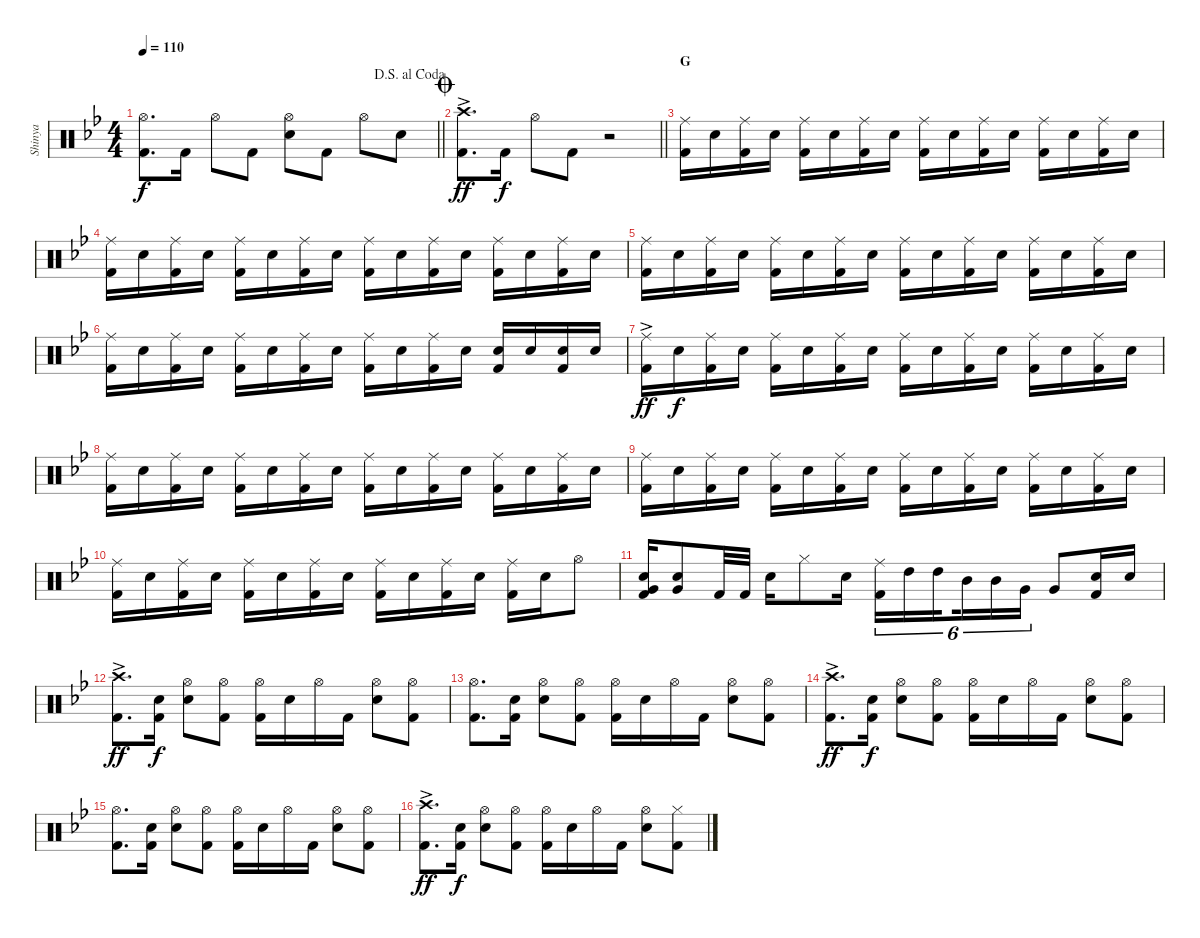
\track ("Shinya" "Shinya") {instrument percussion}
\staff {score}
\articulation defaults
\ts (4 4)
\jump dalsegnoalcoda
\tempo 110
\clef neutral
\barLineRight lightlight
\ks bb
("Hi-Hat (open)" "Kick (hit) 2").8{d dy f} "Kick (hit) 2".16 "Hi-Hat (open)".8 "Kick (hit) 2".8 ("Hi-Hat (open)" "Snare (hit) 2").8 "Kick (hit) 2".8 "Hi-Hat (open)".8 "Snare (hit) 2".8 |
\jump coda
\barLineRight lightlight
("Crash high (hit)"{ac} "Kick (hit) 2").8{d dy ff} "Kick (hit) 2".16{dy f} "Hi-Hat (open)".8 "Kick (hit) 2".8 r.2 |
\section ("" "G")
("Ride (middle)" "Kick (hit) 2").16 "Snare (hit) 2".16 ("Ride (middle)" "Kick (hit) 2").16 "Snare (hit) 2".16 ("Ride (middle)" "Kick (hit) 2").16 "Snare (hit) 2".16 ("Ride (middle)" "Kick (hit) 2").16 "Snare (hit) 2".16 ("Ride (middle)" "Kick (hit) 2").16 "Snare (hit) 2".16 ("Ride (middle)" "Kick (hit) 2").16 "Snare (hit) 2".16 ("Ride (middle)" "Kick (hit) 2").16 "Snare (hit) 2".16 ("Ride (middle)" "Kick (hit) 2").16 "Snare (hit) 2".16 |
("Ride (middle)" "Kick (hit) 2").16 "Snare (hit) 2".16 ("Ride (middle)" "Kick (hit) 2").16 "Snare (hit) 2".16 ("Ride (middle)" "Kick (hit) 2").16 "Snare (hit) 2".16 ("Ride (middle)" "Kick (hit) 2").16 "Snare (hit) 2".16 ("Ride (middle)" "Kick (hit) 2").16 "Snare (hit) 2".16 ("Ride (middle)" "Kick (hit) 2").16 "Snare (hit) 2".16 ("Ride (middle)" "Kick (hit) 2").16 "Snare (hit) 2".16 ("Ride (middle)" "Kick (hit) 2").16 "Snare (hit) 2".16 |
("Ride (middle)" "Kick (hit) 2").16 "Snare (hit) 2".16 ("Ride (middle)" "Kick (hit) 2").16 "Snare (hit) 2".16 ("Ride (middle)" "Kick (hit) 2").16 "Snare (hit) 2".16 ("Ride (middle)" "Kick (hit) 2").16 "Snare (hit) 2".16 ("Ride (middle)" "Kick (hit) 2").16 "Snare (hit) 2".16 ("Ride (middle)" "Kick (hit) 2").16 "Snare (hit) 2".16 ("Ride (middle)" "Kick (hit) 2").16 "Snare (hit) 2".16 ("Ride (middle)" "Kick (hit) 2").16 "Snare (hit) 2".16 |
("Ride (middle)" "Kick (hit) 2").16 "Snare (hit) 2".16 ("Ride (middle)" "Kick (hit) 2").16 "Snare (hit) 2".16 ("Ride (middle)" "Kick (hit) 2").16 "Snare (hit) 2".16 ("Ride (middle)" "Kick (hit) 2").16 "Snare (hit) 2".16 ("Ride (middle)" "Kick (hit) 2").16 "Snare (hit) 2".16 ("Ride (middle)" "Kick (hit) 2").16 "Snare (hit) 2".16 ("Snare (hit) 2" "Kick (hit) 2").16 "Snare (hit) 2".16 ("Snare (hit) 2" "Kick (hit) 2").16 "Snare (hit) 2".16 |
("Ride (middle)" "Kick (hit) 2"{ac}).16{dy ff} "Snare (hit) 2".16{dy f} ("Ride (middle)" "Kick (hit) 2").16 "Snare (hit) 2".16 ("Ride (middle)" "Kick (hit) 2").16 "Snare (hit) 2".16 ("Ride (middle)" "Kick (hit) 2").16 "Snare (hit) 2".16 ("Ride (middle)" "Kick (hit) 2").16 "Snare (hit) 2".16 ("Ride (middle)" "Kick (hit) 2").16 "Snare (hit) 2".16 ("Ride (middle)" "Kick (hit) 2").16 "Snare (hit) 2".16 ("Ride (middle)" "Kick (hit) 2").16 "Snare (hit) 2".16 |
("Ride (middle)" "Kick (hit) 2").16 "Snare (hit) 2".16 ("Ride (middle)" "Kick (hit) 2").16 "Snare (hit) 2".16 ("Ride (middle)" "Kick (hit) 2").16 "Snare (hit) 2".16 ("Ride (middle)" "Kick (hit) 2").16 "Snare (hit) 2".16 ("Ride (middle)" "Kick (hit) 2").16 "Snare (hit) 2".16 ("Ride (middle)" "Kick (hit) 2").16 "Snare (hit) 2".16 ("Ride (middle)" "Kick (hit) 2").16 "Snare (hit) 2".16 ("Ride (middle)" "Kick (hit) 2").16 "Snare (hit) 2".16 |
("Ride (middle)" "Kick (hit) 2").16 "Snare (hit) 2".16 ("Ride (middle)" "Kick (hit) 2").16 "Snare (hit) 2".16 ("Ride (middle)" "Kick (hit) 2").16 "Snare (hit) 2".16 ("Ride (middle)" "Kick (hit) 2").16 "Snare (hit) 2".16 ("Ride (middle)" "Kick (hit) 2").16 "Snare (hit) 2".16 ("Ride (middle)" "Kick (hit) 2").16 "Snare (hit) 2".16 ("Ride (middle)" "Kick (hit) 2").16 "Snare (hit) 2".16 ("Ride (middle)" "Kick (hit) 2").16 "Snare (hit) 2".16 |
("Ride (middle)" "Kick (hit) 2").16 "Snare (hit) 2".16 ("Ride (middle)" "Kick (hit) 2").16 "Snare (hit) 2".16 ("Ride (middle)" "Kick (hit) 2").16 "Snare (hit) 2".16 ("Ride (middle)" "Kick (hit) 2").16 "Snare (hit) 2".16 ("Ride (middle)" "Kick (hit) 2").16 "Snare (hit) 2".16 ("Ride (middle)" "Kick (hit) 2").16 "Snare (hit) 2".16 ("Ride (middle)" "Kick (hit) 2").16 "Snare (hit) 2".16 "Hi-Hat (open)".8 |
("Snare (hit) 2" "Very Low Tom (hit)" "Kick (hit) 2").16 ("Snare (hit) 2" "Very Low Tom (hit)").8 "Kick (hit) 2".32 "Kick (hit) 2".32 "Snare (hit) 2".16 "Hi-Hat (closed)".8 "Snare (hit) 2".16 ("Ride (middle)" "Kick (hit) 2").16{tu (6 4)} "High Tom (hit)".16{tu (6 4)} "High Tom (hit)".16{tu (6 4) beam splitsecondary} "Mid Tom (hit)".16{tu (6 4)} "Mid Tom (hit)".16{tu (6 4)} "Very Low Tom (hit)".16{tu (6 4)} "Very Low Tom (hit)".8 ("Snare (hit) 2" "Kick (hit) 2").16 "Snare (hit) 2".16 |
("Crash high (hit)"{ac} "Kick (hit) 2").8{d dy ff} ("Snare (hit) 2" "Kick (hit) 2").16{dy f} ("Hi-Hat (open)" "Snare (hit) 2").8 ("Hi-Hat (open)" "Kick (hit) 2").8 ("Hi-Hat (open)" "Kick (hit) 2").16 "Snare (hit) 2".16 "Hi-Hat (open)".16 "Kick (hit) 2".16 ("Hi-Hat (open)" "Snare (hit) 2").8 ("Hi-Hat (open)" "Kick (hit) 2").8 |
("Hi-Hat (open)" "Kick (hit) 2").8{d} ("Snare (hit) 2" "Kick (hit) 2").16 ("Hi-Hat (open)" "Snare (hit) 2").8 ("Hi-Hat (open)" "Kick (hit) 2").8 ("Hi-Hat (open)" "Kick (hit) 2").16 "Snare (hit) 2".16 "Hi-Hat (open)".16 "Kick (hit) 2".16 ("Hi-Hat (open)" "Snare (hit) 2").8 ("Hi-Hat (open)" "Kick (hit) 2").8 |
("Crash high (hit)"{ac} "Kick (hit) 2").8{d dy ff} ("Snare (hit) 2" "Kick (hit) 2").16{dy f} ("Hi-Hat (open)" "Snare (hit) 2").8 ("Hi-Hat (open)" "Kick (hit) 2").8 ("Hi-Hat (open)" "Kick (hit) 2").16 "Snare (hit) 2".16 "Hi-Hat (open)".16 "Kick (hit) 2".16 ("Hi-Hat (open)" "Snare (hit) 2").8 ("Hi-Hat (open)" "Kick (hit) 2").8 |
("Hi-Hat (open)" "Kick (hit) 2").8{d} ("Snare (hit) 2" "Kick (hit) 2").16 ("Hi-Hat (open)" "Snare (hit) 2").8 ("Hi-Hat (open)" "Kick (hit) 2").8 ("Hi-Hat (open)" "Kick (hit) 2").16 "Snare (hit) 2".16 "Hi-Hat (open)".16 "Kick (hit) 2".16 ("Hi-Hat (open)" "Snare (hit) 2").8 ("Hi-Hat (open)" "Kick (hit) 2").8 |
("Crash high (hit)"{ac} "Kick (hit) 2").8{d dy ff} ("Snare (hit) 2" "Kick (hit) 2").16{dy f} ("Hi-Hat (open)" "Snare (hit) 2").8 ("Hi-Hat (open)" "Kick (hit) 2").8 ("Hi-Hat (open)" "Kick (hit) 2").16 "Snare (hit) 2".16 "Hi-Hat (open)".16 "Kick (hit) 2".16 ("Hi-Hat (open)" "Snare (hit) 2").8 ("Hi-Hat (closed)" "Kick (hit) 2").8
